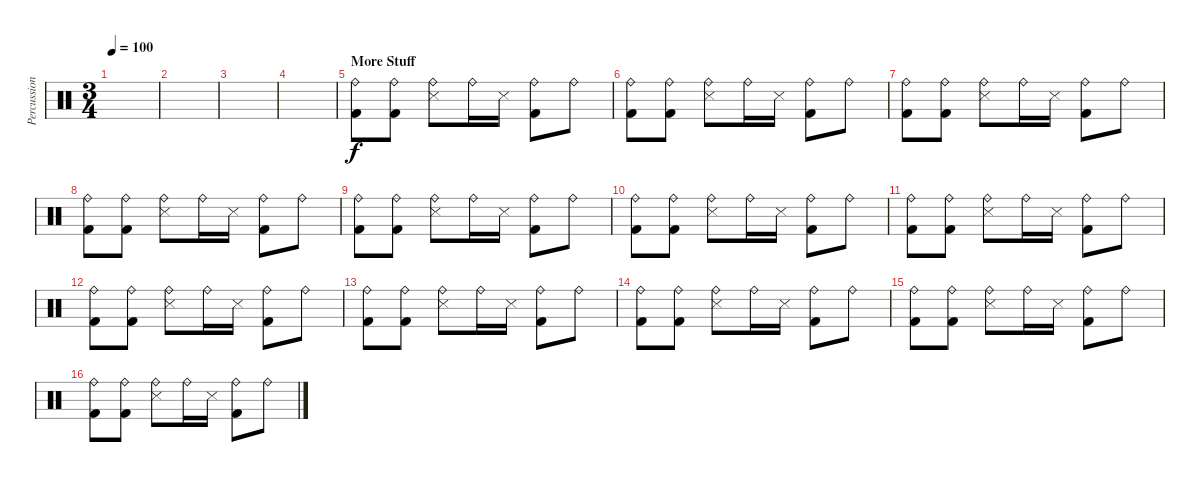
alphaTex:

\track ("Percussion" "Percussion") {instrument percussion}
\staff {score}
\articulation defaults
\ts (3 4)
\tempo 100
\clef neutral
\ks c
|
|
|
|
\section ("" "More Stuff")
("Ride (bell)" "Kick (hit) 2").8 ("Ride (bell)" "Kick (hit) 2").8 ("Ride (bell)" "Snare (side stick) 3").8 "Ride (bell)".16 "Snare (side stick) 3".16 ("Ride (bell)" "Kick (hit) 2").8 "Ride (bell)".8 |
("Ride (bell)" "Kick (hit) 2").8 ("Ride (bell)" "Kick (hit) 2").8 ("Ride (bell)" "Snare (side stick) 3").8 "Ride (bell)".16 "Snare (side stick) 3".16 ("Ride (bell)" "Kick (hit) 2").8 "Ride (bell)".8 |
("Ride (bell)" "Kick (hit) 2").8 ("Ride (bell)" "Kick (hit) 2").8 ("Ride (bell)" "Snare (side stick) 3").8 "Ride (bell)".16 "Snare (side stick) 3".16 ("Ride (bell)" "Kick (hit) 2").8 "Ride (bell)".8 |
("Ride (bell)" "Kick (hit) 2").8 ("Ride (bell)" "Kick (hit) 2").8 ("Ride (bell)" "Snare (side stick) 3").8 "Ride (bell)".16 "Snare (side stick) 3".16 ("Ride (bell)" "Kick (hit) 2").8 "Ride (bell)".8 |
("Ride (bell)" "Kick (hit) 2").8 ("Ride (bell)" "Kick (hit) 2").8 ("Ride (bell)" "Snare (side stick) 3").8 "Ride (bell)".16 "Snare (side stick) 3".16 ("Ride (bell)" "Kick (hit) 2").8 "Ride (bell)".8 |
("Ride (bell)" "Kick (hit) 2").8 ("Ride (bell)" "Kick (hit) 2").8 ("Ride (bell)" "Snare (side stick) 3").8 "Ride (bell)".16 "Snare (side stick) 3".16 ("Ride (bell)" "Kick (hit) 2").8 "Ride (bell)".8 |
("Ride (bell)" "Kick (hit) 2").8 ("Ride (bell)" "Kick (hit) 2").8 ("Ride (bell)" "Snare (side stick) 3").8 "Ride (bell)".16 "Snare (side stick) 3".16 ("Ride (bell)" "Kick (hit) 2").8 "Ride (bell)".8 |
("Ride (bell)" "Kick (hit) 2").8 ("Ride (bell)" "Kick (hit) 2").8 ("Ride (bell)" "Snare (side stick) 3").8 "Ride (bell)".16 "Snare (side stick) 3".16 ("Ride (bell)" "Kick (hit) 2").8 "Ride (bell)".8 |
("Ride (bell)" "Kick (hit) 2").8 ("Ride (bell)" "Kick (hit) 2").8 ("Ride (bell)" "Snare (side stick) 3").8 "Ride (bell)".16 "Snare (side stick) 3".16 ("Ride (bell)" "Kick (hit) 2").8 "Ride (bell)".8 |
("Ride (bell)" "Kick (hit) 2").8 ("Ride (bell)" "Kick (hit) 2").8 ("Ride (bell)" "Snare (side stick) 3").8 "Ride (bell)".16 "Snare (side stick) 3".16 ("Ride (bell)" "Kick (hit) 2").8 "Ride (bell)".8 |
("Ride (bell)" "Kick (hit) 2").8 ("Ride (bell)" "Kick (hit) 2").8 ("Ride (bell)" "Snare (side stick) 3").8 "Ride (bell)".16 "Snare (side stick) 3".16 ("Ride (bell)" "Kick (hit) 2").8 "Ride (bell)".8 |
("Ride (bell)" "Kick (hit) 2").8 ("Ride (bell)" "Kick (hit) 2").8 ("Ride (bell)" "Snare (side stick) 3").8 "Ride (bell)".16 "Snare (side stick) 3".16 ("Ride (bell)" "Kick (hit) 2").8 "Ride (bell)".8
